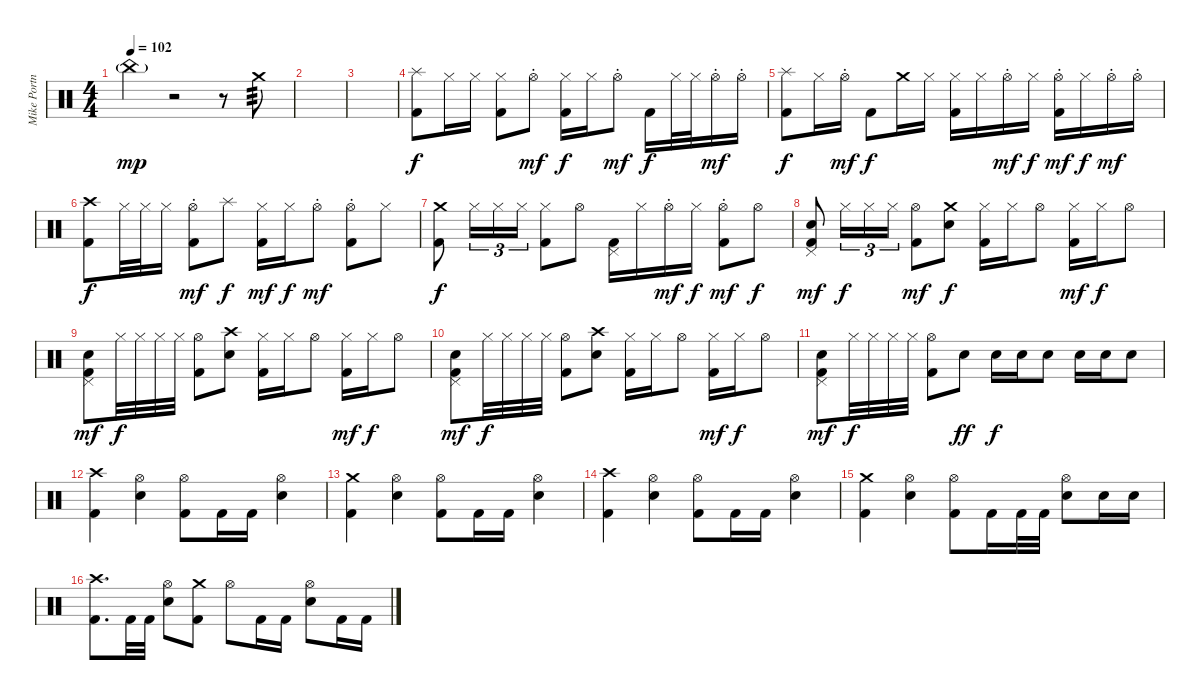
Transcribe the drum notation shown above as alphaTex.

\track ("Mike Portnoy Drum " "Mike Portn") {instrument percussion}
\staff {score}
\articulation defaults
\ts (4 4)
\tempo 102
\clef neutral
\ks c "China (hit)"{g}.4{dy mp}
r.2 r.8 "Crash medium (hit)".8{tp 3} |
|
|
("Splash (hit)" "Kick (hit) 2").8{dy f} "Hi-Hat (closed)".16 "Hi-Hat (closed)".16 ("Hi-Hat (closed)" "Kick (hit) 2").8 "Hi-Hat (open)"{st}.8{dy mf} ("Hi-Hat (closed)" "Kick (hit) 2").16{dy f} "Hi-Hat (closed)".16 "Hi-Hat (open)"{st}.8{dy mf} "Kick (hit) 2".16{dy f} "Hi-Hat (closed)".32 "Hi-Hat (closed)".32 "Hi-Hat (open)"{st}.16{dy mf} "Hi-Hat (open)"{st}.16 |
("Splash (hit)" "Kick (hit) 2").8{dy f} "Hi-Hat (closed)".16 "Hi-Hat (open)"{st}.16{dy mf} "Kick (hit) 2".8{dy f} "Crash medium (hit)".16 "Hi-Hat (closed)".16 ("Hi-Hat (closed)" "Kick (hit) 2").16 "Hi-Hat (closed)".16 "Hi-Hat (open)"{st}.16{dy mf} "Hi-Hat (closed)".16{dy f} ("Hi-Hat (open)"{st} "Kick (hit) 2").16{dy mf} "Hi-Hat (closed)".16{dy f} "Hi-Hat (open)"{st}.16{dy mf} "Hi-Hat (open)"{st}.16 |
("Crash high (hit)" "Kick (hit) 2").8{dy f} "Hi-Hat (closed)".32 "Hi-Hat (closed)".32 "Hi-Hat (closed)".16 ("Hi-Hat (open)"{st} "Kick (hit) 2").8{dy mf} "Splash (hit)".8{dy f} ("Hi-Hat (closed)" "Kick (hit) 2").16{dy mf} "Hi-Hat (closed)".16{dy f} "Hi-Hat (open)"{st}.8{dy mf} ("Hi-Hat (open)"{st} "Kick (hit) 2").8 "Hi-Hat (closed)".8 |
("Crash medium (hit)" "Kick (hit) 2").8{dy f} "Hi-Hat (closed)".16{tu (3 2)} "Hi-Hat (closed)".16{tu (3 2)} "Hi-Hat (closed)".16{tu (3 2)} ("Hi-Hat (closed)" "Kick (hit) 2").8 "Hi-Hat (open)".8 ("Pedal Hi-Hat (hit)" "Kick (hit) 2").16 "Hi-Hat (closed)".16 "Hi-Hat (open)"{st}.16{dy mf} "Hi-Hat (closed)".16{dy f} ("Hi-Hat (open)"{st} "Kick (hit) 2").8{dy mf} "Hi-Hat (open)".8{dy f} |
("Pedal Hi-Hat (hit)" "Electric Snare (hit)" "Kick (hit) 2").8{dy mf} "Hi-Hat (closed)".16{tu (3 2) dy f} "Hi-Hat (closed)".16{tu (3 2)} "Hi-Hat (closed)".16{tu (3 2)} ("Hi-Hat (open)" "Kick (hit) 2").8{dy mf} ("Crash medium (hit)" "Electric Snare (hit)").8{dy f} ("Hi-Hat (closed)" "Kick (hit) 2").16 "Hi-Hat (closed)".16 "Hi-Hat (open)".8 ("Hi-Hat (closed)" "Kick (hit) 2").16{dy mf} "Hi-Hat (closed)".16{dy f} "Hi-Hat (open)".8 |
("Pedal Hi-Hat (hit)" "Electric Snare (hit)" "Kick (hit) 2").8{dy mf} "Hi-Hat (closed)".32{dy f} "Hi-Hat (closed)".32 "Hi-Hat (closed)".32 "Hi-Hat (closed)".32 ("Hi-Hat (open)" "Kick (hit) 2").8 ("Crash high (hit)" "Electric Snare (hit)").8 ("Hi-Hat (closed)" "Kick (hit) 2").16 "Hi-Hat (closed)".16 "Hi-Hat (open)".8 ("Hi-Hat (closed)" "Kick (hit) 2").16{dy mf} "Hi-Hat (closed)".16{dy f} "Hi-Hat (open)".8 |
("Pedal Hi-Hat (hit)" "Electric Snare (hit)" "Kick (hit) 2").8{dy mf} "Hi-Hat (closed)".32{dy f} "Hi-Hat (closed)".32 "Hi-Hat (closed)".32 "Hi-Hat (closed)".32 ("Hi-Hat (open)" "Kick (hit) 2").8 ("Crash high (hit)" "Electric Snare (hit)").8 ("Hi-Hat (closed)" "Kick (hit) 2").16 "Hi-Hat (closed)".16 "Hi-Hat (open)".8 ("Hi-Hat (closed)" "Kick (hit) 2").16{dy mf} "Hi-Hat (closed)".16{dy f} "Hi-Hat (open)".8 |
("Pedal Hi-Hat (hit)" "Electric Snare (hit)" "Kick (hit) 2").8{dy mf} "Hi-Hat (closed)".32{dy f} "Hi-Hat (closed)".32 "Hi-Hat (closed)".32 "Hi-Hat (closed)".32 ("Hi-Hat (open)" "Kick (hit) 2").8 "Electric Snare (hit)".8{dy ff} "Electric Snare (hit)".16{dy f} "Electric Snare (hit)".16 "Electric Snare (hit)".8 "Electric Snare (hit)".16 "Electric Snare (hit)".16 "Electric Snare (hit)".8 |
("Crash high (hit)" "Kick (hit) 2").4 ("Hi-Hat (open)" "Electric Snare (hit)").4 ("Hi-Hat (open)" "Kick (hit) 2").8 "Kick (hit) 2".16 "Kick (hit) 2".16 ("Hi-Hat (open)" "Electric Snare (hit)").4 |
("Crash medium (hit)" "Kick (hit) 2").4 ("Hi-Hat (open)" "Electric Snare (hit)").4 ("Hi-Hat (open)" "Kick (hit) 2").8 "Kick (hit) 2".16 "Kick (hit) 2".16 ("Hi-Hat (open)" "Electric Snare (hit)").4 |
("Crash high (hit)" "Kick (hit) 2").4 ("Hi-Hat (open)" "Electric Snare (hit)").4 ("Hi-Hat (open)" "Kick (hit) 2").8 "Kick (hit) 2".16 "Kick (hit) 2".16 ("Hi-Hat (open)" "Electric Snare (hit)").4 |
("Crash medium (hit)" "Kick (hit) 2").4 ("Hi-Hat (open)" "Electric Snare (hit)").4 ("Hi-Hat (open)" "Kick (hit) 2").8 "Kick (hit) 2".16 "Kick (hit) 2".32 "Kick (hit) 2".32 ("Hi-Hat (open)" "Electric Snare (hit)").8 "Electric Snare (hit)".16 "Electric Snare (hit)".16 |
("Crash high (hit)" "Kick (hit) 2").8{d} "Kick (hit) 2".32 "Kick (hit) 2".32 ("Hi-Hat (open)" "Electric Snare (hit)").8 ("Crash medium (hit)" "Kick (hit) 2").8 "Hi-Hat (open)".8 "Kick (hit) 2".16 "Kick (hit) 2".16 ("Hi-Hat (open)" "Electric Snare (hit)").8 "Kick (hit) 2".16 "Kick (hit) 2".16
